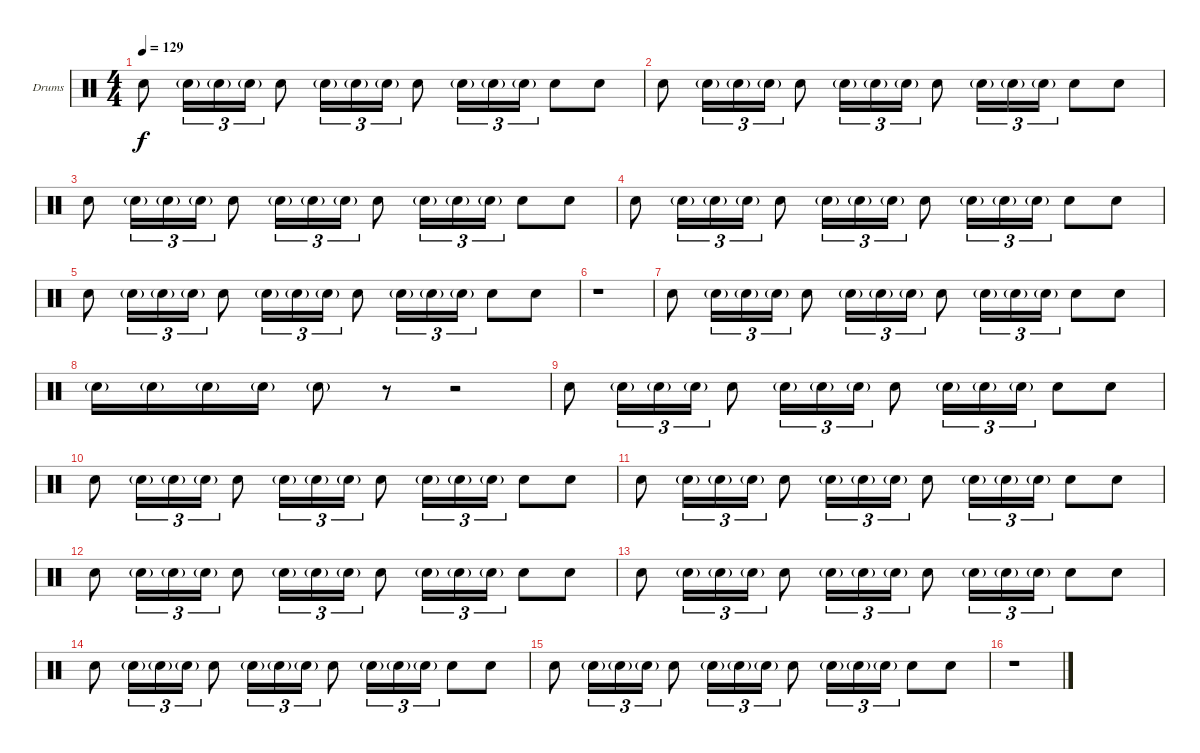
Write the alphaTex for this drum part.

\defaultSystemsLayout 4
\bracketExtendMode groupsimilarinstruments
\firstSystemTrackNameOrientation horizontal
\otherSystemsTrackNameOrientation horizontal
\track ("Drumkit" "Drums") {instrument percussion}
\staff {score}
\articulation defaults
\ts (4 4)
\tempo 129
\clef neutral
\ks c "Snare (hit) 2".8{dy f} "Snare (hit) 2"{g}.16{tu (3 2)} "Snare (hit) 2"{g}.16{tu (3 2)} "Snare (hit) 2"{g}.16{tu (3 2)} "Snare (hit) 2".8 "Snare (hit) 2"{g}.16{tu (3 2)} "Snare (hit) 2"{g}.16{tu (3 2)} "Snare (hit) 2"{g}.16{tu (3 2)} "Snare (hit) 2".8 "Snare (hit) 2"{g}.16{tu (3 2)} "Snare (hit) 2"{g}.16{tu (3 2)} "Snare (hit) 2"{g}.16{tu (3 2)} "Snare (hit) 2".8 "Snare (hit) 2".8
|
"Snare (hit) 2".8 "Snare (hit) 2"{g}.16{tu (3 2)} "Snare (hit) 2"{g}.16{tu (3 2)} "Snare (hit) 2"{g}.16{tu (3 2)} "Snare (hit) 2".8 "Snare (hit) 2"{g}.16{tu (3 2)} "Snare (hit) 2"{g}.16{tu (3 2)} "Snare (hit) 2"{g}.16{tu (3 2)} "Snare (hit) 2".8 "Snare (hit) 2"{g}.16{tu (3 2)} "Snare (hit) 2"{g}.16{tu (3 2)} "Snare (hit) 2"{g}.16{tu (3 2)} "Snare (hit) 2".8 "Snare (hit) 2".8 |
"Snare (hit) 2".8 "Snare (hit) 2"{g}.16{tu (3 2)} "Snare (hit) 2"{g}.16{tu (3 2)} "Snare (hit) 2"{g}.16{tu (3 2)} "Snare (hit) 2".8 "Snare (hit) 2"{g}.16{tu (3 2)} "Snare (hit) 2"{g}.16{tu (3 2)} "Snare (hit) 2"{g}.16{tu (3 2)} "Snare (hit) 2".8 "Snare (hit) 2"{g}.16{tu (3 2)} "Snare (hit) 2"{g}.16{tu (3 2)} "Snare (hit) 2"{g}.16{tu (3 2)} "Snare (hit) 2".8 "Snare (hit) 2".8 |
"Snare (hit) 2".8 "Snare (hit) 2"{g}.16{tu (3 2)} "Snare (hit) 2"{g}.16{tu (3 2)} "Snare (hit) 2"{g}.16{tu (3 2)} "Snare (hit) 2".8 "Snare (hit) 2"{g}.16{tu (3 2)} "Snare (hit) 2"{g}.16{tu (3 2)} "Snare (hit) 2"{g}.16{tu (3 2)} "Snare (hit) 2".8 "Snare (hit) 2"{g}.16{tu (3 2)} "Snare (hit) 2"{g}.16{tu (3 2)} "Snare (hit) 2"{g}.16{tu (3 2)} "Snare (hit) 2".8 "Snare (hit) 2".8 |
"Snare (hit) 2".8 "Snare (hit) 2"{g}.16{tu (3 2)} "Snare (hit) 2"{g}.16{tu (3 2)} "Snare (hit) 2"{g}.16{tu (3 2)} "Snare (hit) 2".8 "Snare (hit) 2"{g}.16{tu (3 2)} "Snare (hit) 2"{g}.16{tu (3 2)} "Snare (hit) 2"{g}.16{tu (3 2)} "Snare (hit) 2".8 "Snare (hit) 2"{g}.16{tu (3 2)} "Snare (hit) 2"{g}.16{tu (3 2)} "Snare (hit) 2"{g}.16{tu (3 2)} "Snare (hit) 2".8 "Snare (hit) 2".8 |
r.1 |
"Snare (hit) 2".8 "Snare (hit) 2"{g}.16{tu (3 2)} "Snare (hit) 2"{g}.16{tu (3 2)} "Snare (hit) 2"{g}.16{tu (3 2)} "Snare (hit) 2".8 "Snare (hit) 2"{g}.16{tu (3 2)} "Snare (hit) 2"{g}.16{tu (3 2)} "Snare (hit) 2"{g}.16{tu (3 2)} "Snare (hit) 2".8 "Snare (hit) 2"{g}.16{tu (3 2)} "Snare (hit) 2"{g}.16{tu (3 2)} "Snare (hit) 2"{g}.16{tu (3 2)} "Snare (hit) 2".8 "Snare (hit) 2".8 |
"Snare (hit) 2"{g}.16 "Snare (hit) 2"{g}.16 "Snare (hit) 2"{g}.16 "Snare (hit) 2"{g}.16 "Snare (hit) 2"{g}.8 r.8 r.2 |
"Snare (hit) 2".8 "Snare (hit) 2"{g}.16{tu (3 2)} "Snare (hit) 2"{g}.16{tu (3 2)} "Snare (hit) 2"{g}.16{tu (3 2)} "Snare (hit) 2".8 "Snare (hit) 2"{g}.16{tu (3 2)} "Snare (hit) 2"{g}.16{tu (3 2)} "Snare (hit) 2"{g}.16{tu (3 2)} "Snare (hit) 2".8 "Snare (hit) 2"{g}.16{tu (3 2)} "Snare (hit) 2"{g}.16{tu (3 2)} "Snare (hit) 2"{g}.16{tu (3 2)} "Snare (hit) 2".8 "Snare (hit) 2".8 |
"Snare (hit) 2".8 "Snare (hit) 2"{g}.16{tu (3 2)} "Snare (hit) 2"{g}.16{tu (3 2)} "Snare (hit) 2"{g}.16{tu (3 2)} "Snare (hit) 2".8 "Snare (hit) 2"{g}.16{tu (3 2)} "Snare (hit) 2"{g}.16{tu (3 2)} "Snare (hit) 2"{g}.16{tu (3 2)} "Snare (hit) 2".8 "Snare (hit) 2"{g}.16{tu (3 2)} "Snare (hit) 2"{g}.16{tu (3 2)} "Snare (hit) 2"{g}.16{tu (3 2)} "Snare (hit) 2".8 "Snare (hit) 2".8 |
"Snare (hit) 2".8 "Snare (hit) 2"{g}.16{tu (3 2)} "Snare (hit) 2"{g}.16{tu (3 2)} "Snare (hit) 2"{g}.16{tu (3 2)} "Snare (hit) 2".8 "Snare (hit) 2"{g}.16{tu (3 2)} "Snare (hit) 2"{g}.16{tu (3 2)} "Snare (hit) 2"{g}.16{tu (3 2)} "Snare (hit) 2".8 "Snare (hit) 2"{g}.16{tu (3 2)} "Snare (hit) 2"{g}.16{tu (3 2)} "Snare (hit) 2"{g}.16{tu (3 2)} "Snare (hit) 2".8 "Snare (hit) 2".8 |
"Snare (hit) 2".8 "Snare (hit) 2"{g}.16{tu (3 2)} "Snare (hit) 2"{g}.16{tu (3 2)} "Snare (hit) 2"{g}.16{tu (3 2)} "Snare (hit) 2".8 "Snare (hit) 2"{g}.16{tu (3 2)} "Snare (hit) 2"{g}.16{tu (3 2)} "Snare (hit) 2"{g}.16{tu (3 2)} "Snare (hit) 2".8 "Snare (hit) 2"{g}.16{tu (3 2)} "Snare (hit) 2"{g}.16{tu (3 2)} "Snare (hit) 2"{g}.16{tu (3 2)} "Snare (hit) 2".8 "Snare (hit) 2".8 |
"Snare (hit) 2".8 "Snare (hit) 2"{g}.16{tu (3 2)} "Snare (hit) 2"{g}.16{tu (3 2)} "Snare (hit) 2"{g}.16{tu (3 2)} "Snare (hit) 2".8 "Snare (hit) 2"{g}.16{tu (3 2)} "Snare (hit) 2"{g}.16{tu (3 2)} "Snare (hit) 2"{g}.16{tu (3 2)} "Snare (hit) 2".8 "Snare (hit) 2"{g}.16{tu (3 2)} "Snare (hit) 2"{g}.16{tu (3 2)} "Snare (hit) 2"{g}.16{tu (3 2)} "Snare (hit) 2".8 "Snare (hit) 2".8 |
"Snare (hit) 2".8 "Snare (hit) 2"{g}.16{tu (3 2)} "Snare (hit) 2"{g}.16{tu (3 2)} "Snare (hit) 2"{g}.16{tu (3 2)} "Snare (hit) 2".8 "Snare (hit) 2"{g}.16{tu (3 2)} "Snare (hit) 2"{g}.16{tu (3 2)} "Snare (hit) 2"{g}.16{tu (3 2)} "Snare (hit) 2".8 "Snare (hit) 2"{g}.16{tu (3 2)} "Snare (hit) 2"{g}.16{tu (3 2)} "Snare (hit) 2"{g}.16{tu (3 2)} "Snare (hit) 2".8 "Snare (hit) 2".8 |
"Snare (hit) 2".8 "Snare (hit) 2"{g}.16{tu (3 2)} "Snare (hit) 2"{g}.16{tu (3 2)} "Snare (hit) 2"{g}.16{tu (3 2)} "Snare (hit) 2".8 "Snare (hit) 2"{g}.16{tu (3 2)} "Snare (hit) 2"{g}.16{tu (3 2)} "Snare (hit) 2"{g}.16{tu (3 2)} "Snare (hit) 2".8 "Snare (hit) 2"{g}.16{tu (3 2)} "Snare (hit) 2"{g}.16{tu (3 2)} "Snare (hit) 2"{g}.16{tu (3 2)} "Snare (hit) 2".8 "Snare (hit) 2".8 |
r.1
